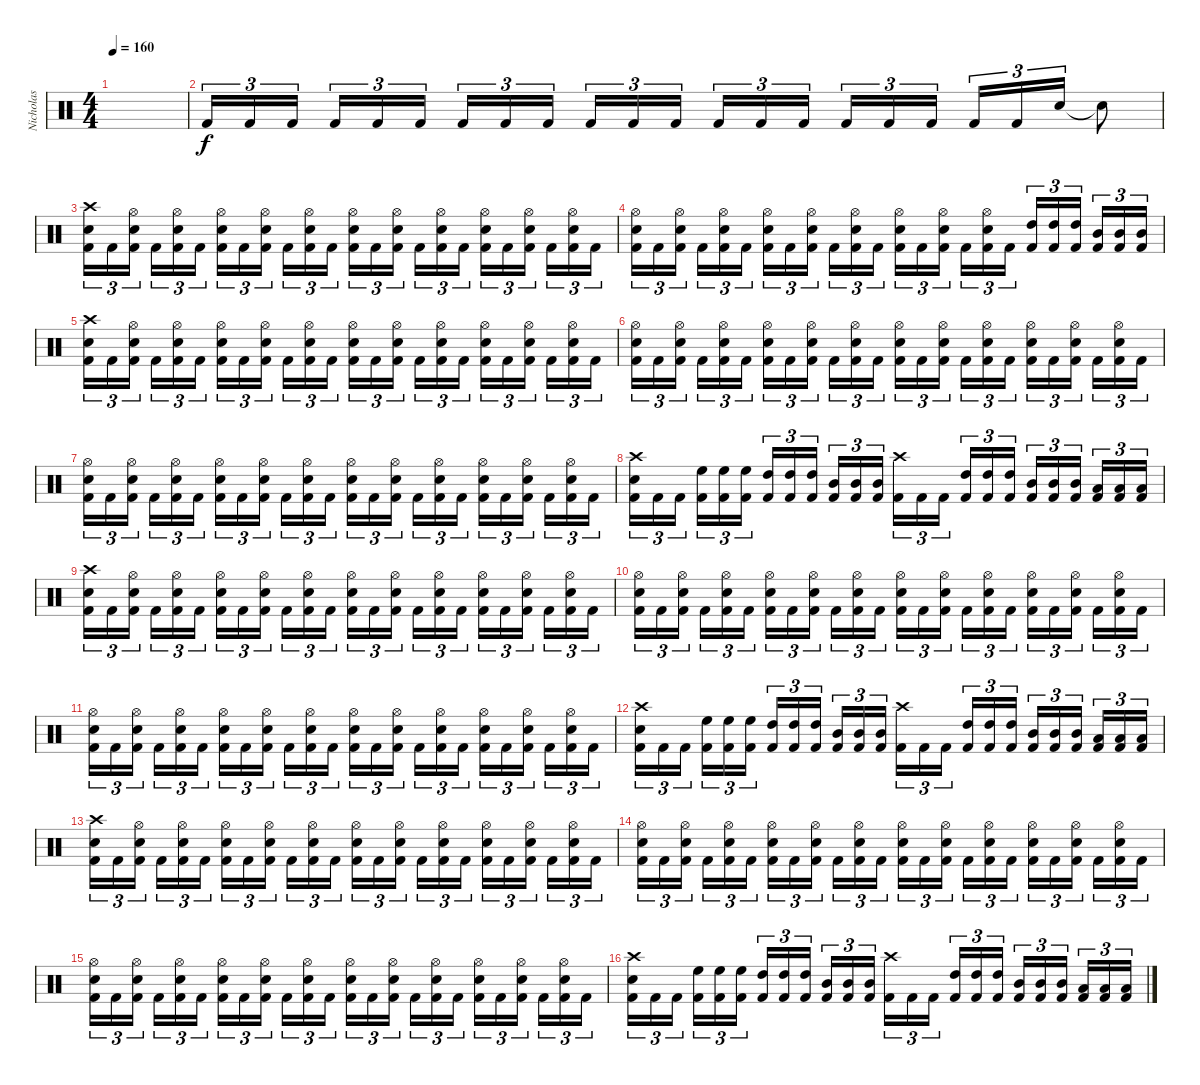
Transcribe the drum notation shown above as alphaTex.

\track ("Nicholas" "Nicholas") {instrument percussion}
\staff {score}
\articulation defaults
\ts (4 4)
\tempo 160
\clef neutral
\ks c
|
"Kick (hit) 2".16{tu (3 2)} "Kick (hit) 2".16{tu (3 2)} "Kick (hit) 2".16{tu (3 2)} "Kick (hit) 2".16{tu (3 2)} "Kick (hit) 2".16{tu (3 2)} "Kick (hit) 2".16{tu (3 2)} "Kick (hit) 2".16{tu (3 2)} "Kick (hit) 2".16{tu (3 2)} "Kick (hit) 2".16{tu (3 2)} "Kick (hit) 2".16{tu (3 2)} "Kick (hit) 2".16{tu (3 2)} "Kick (hit) 2".16{tu (3 2)} "Kick (hit) 2".16{tu (3 2)} "Kick (hit) 2".16{tu (3 2)} "Kick (hit) 2".16{tu (3 2)} "Kick (hit) 2".16{tu (3 2)} "Kick (hit) 2".16{tu (3 2)} "Kick (hit) 2".16{tu (3 2)} "Kick (hit) 2".16{tu (3 2)} "Kick (hit) 2".16{tu (3 2)} "Snare (hit) 2".16{tu (3 2)} "Snare (hit) 2"{t}.8 |
("Kick (hit) 2" "Snare (hit) 2" "Crash high (hit)").16{tu (3 2)} "Kick (hit) 2".16{tu (3 2)} ("Kick (hit) 2" "Snare (hit) 2" "Hi-Hat (open)").16{tu (3 2)} "Kick (hit) 2".16{tu (3 2)} ("Kick (hit) 2" "Snare (hit) 2" "Hi-Hat (open)").16{tu (3 2)} "Kick (hit) 2".16{tu (3 2)} ("Kick (hit) 2" "Snare (hit) 2" "Hi-Hat (open)").16{tu (3 2)} "Kick (hit) 2".16{tu (3 2)} ("Kick (hit) 2" "Snare (hit) 2" "Hi-Hat (open)").16{tu (3 2)} "Kick (hit) 2".16{tu (3 2)} ("Kick (hit) 2" "Snare (hit) 2" "Hi-Hat (open)").16{tu (3 2)} "Kick (hit) 2".16{tu (3 2)} ("Kick (hit) 2" "Snare (hit) 2" "Hi-Hat (open)").16{tu (3 2)} "Kick (hit) 2".16{tu (3 2)} ("Kick (hit) 2" "Snare (hit) 2" "Hi-Hat (open)").16{tu (3 2)} "Kick (hit) 2".16{tu (3 2)} ("Kick (hit) 2" "Snare (hit) 2" "Hi-Hat (open)").16{tu (3 2)} "Kick (hit) 2".16{tu (3 2)} ("Kick (hit) 2" "Snare (hit) 2" "Hi-Hat (open)").16{tu (3 2)} "Kick (hit) 2".16{tu (3 2)} ("Kick (hit) 2" "Snare (hit) 2" "Hi-Hat (open)").16{tu (3 2)} "Kick (hit) 2".16{tu (3 2)} ("Kick (hit) 2" "Snare (hit) 2" "Hi-Hat (open)").16{tu (3 2)} "Kick (hit) 2".16{tu (3 2)} |
("Kick (hit) 2" "Snare (hit) 2" "Hi-Hat (open)").16{tu (3 2)} "Kick (hit) 2".16{tu (3 2)} ("Kick (hit) 2" "Snare (hit) 2" "Hi-Hat (open)").16{tu (3 2)} "Kick (hit) 2".16{tu (3 2)} ("Kick (hit) 2" "Snare (hit) 2" "Hi-Hat (open)").16{tu (3 2)} "Kick (hit) 2".16{tu (3 2)} ("Kick (hit) 2" "Snare (hit) 2" "Hi-Hat (open)").16{tu (3 2)} "Kick (hit) 2".16{tu (3 2)} ("Kick (hit) 2" "Snare (hit) 2" "Hi-Hat (open)").16{tu (3 2)} "Kick (hit) 2".16{tu (3 2)} ("Kick (hit) 2" "Snare (hit) 2" "Hi-Hat (open)").16{tu (3 2)} "Kick (hit) 2".16{tu (3 2)} ("Kick (hit) 2" "Snare (hit) 2" "Hi-Hat (open)").16{tu (3 2)} "Kick (hit) 2".16{tu (3 2)} ("Kick (hit) 2" "Snare (hit) 2" "Hi-Hat (open)").16{tu (3 2)} "Kick (hit) 2".16{tu (3 2)} ("Kick (hit) 2" "Snare (hit) 2" "Hi-Hat (open)").16{tu (3 2)} "Kick (hit) 2".16{tu (3 2)} ("Kick (hit) 2" "High Tom (hit)").16{tu (3 2)} ("Kick (hit) 2" "High Tom (hit)").16{tu (3 2)} ("Kick (hit) 2" "High Tom (hit)").16{tu (3 2)} ("Kick (hit) 2" "Mid Tom (hit)").16{tu (3 2)} ("Kick (hit) 2" "Mid Tom (hit)").16{tu (3 2)} ("Kick (hit) 2" "Mid Tom (hit)").16{tu (3 2)} |
("Kick (hit) 2" "Snare (hit) 2" "Crash high (hit)").16{tu (3 2)} "Kick (hit) 2".16{tu (3 2)} ("Kick (hit) 2" "Snare (hit) 2" "Hi-Hat (open)").16{tu (3 2)} "Kick (hit) 2".16{tu (3 2)} ("Kick (hit) 2" "Snare (hit) 2" "Hi-Hat (open)").16{tu (3 2)} "Kick (hit) 2".16{tu (3 2)} ("Kick (hit) 2" "Snare (hit) 2" "Hi-Hat (open)").16{tu (3 2)} "Kick (hit) 2".16{tu (3 2)} ("Kick (hit) 2" "Snare (hit) 2" "Hi-Hat (open)").16{tu (3 2)} "Kick (hit) 2".16{tu (3 2)} ("Kick (hit) 2" "Snare (hit) 2" "Hi-Hat (open)").16{tu (3 2)} "Kick (hit) 2".16{tu (3 2)} ("Kick (hit) 2" "Snare (hit) 2" "Hi-Hat (open)").16{tu (3 2)} "Kick (hit) 2".16{tu (3 2)} ("Kick (hit) 2" "Snare (hit) 2" "Hi-Hat (open)").16{tu (3 2)} "Kick (hit) 2".16{tu (3 2)} ("Kick (hit) 2" "Snare (hit) 2" "Hi-Hat (open)").16{tu (3 2)} "Kick (hit) 2".16{tu (3 2)} ("Kick (hit) 2" "Snare (hit) 2" "Hi-Hat (open)").16{tu (3 2)} "Kick (hit) 2".16{tu (3 2)} ("Kick (hit) 2" "Snare (hit) 2" "Hi-Hat (open)").16{tu (3 2)} "Kick (hit) 2".16{tu (3 2)} ("Kick (hit) 2" "Snare (hit) 2" "Hi-Hat (open)").16{tu (3 2)} "Kick (hit) 2".16{tu (3 2)} |
("Kick (hit) 2" "Snare (hit) 2" "Hi-Hat (open)").16{tu (3 2)} "Kick (hit) 2".16{tu (3 2)} ("Kick (hit) 2" "Snare (hit) 2" "Hi-Hat (open)").16{tu (3 2)} "Kick (hit) 2".16{tu (3 2)} ("Kick (hit) 2" "Snare (hit) 2" "Hi-Hat (open)").16{tu (3 2)} "Kick (hit) 2".16{tu (3 2)} ("Kick (hit) 2" "Snare (hit) 2" "Hi-Hat (open)").16{tu (3 2)} "Kick (hit) 2".16{tu (3 2)} ("Kick (hit) 2" "Snare (hit) 2" "Hi-Hat (open)").16{tu (3 2)} "Kick (hit) 2".16{tu (3 2)} ("Kick (hit) 2" "Snare (hit) 2" "Hi-Hat (open)").16{tu (3 2)} "Kick (hit) 2".16{tu (3 2)} ("Kick (hit) 2" "Snare (hit) 2" "Hi-Hat (open)").16{tu (3 2)} "Kick (hit) 2".16{tu (3 2)} ("Kick (hit) 2" "Snare (hit) 2" "Hi-Hat (open)").16{tu (3 2)} "Kick (hit) 2".16{tu (3 2)} ("Kick (hit) 2" "Snare (hit) 2" "Hi-Hat (open)").16{tu (3 2)} "Kick (hit) 2".16{tu (3 2)} ("Kick (hit) 2" "Snare (hit) 2" "Hi-Hat (open)").16{tu (3 2)} "Kick (hit) 2".16{tu (3 2)} ("Kick (hit) 2" "Snare (hit) 2" "Hi-Hat (open)").16{tu (3 2)} "Kick (hit) 2".16{tu (3 2)} ("Kick (hit) 2" "Snare (hit) 2" "Hi-Hat (open)").16{tu (3 2)} "Kick (hit) 2".16{tu (3 2)} |
("Kick (hit) 2" "Snare (hit) 2" "Hi-Hat (open)").16{tu (3 2)} "Kick (hit) 2".16{tu (3 2)} ("Kick (hit) 2" "Snare (hit) 2" "Hi-Hat (open)").16{tu (3 2)} "Kick (hit) 2".16{tu (3 2)} ("Kick (hit) 2" "Snare (hit) 2" "Hi-Hat (open)").16{tu (3 2)} "Kick (hit) 2".16{tu (3 2)} ("Kick (hit) 2" "Snare (hit) 2" "Hi-Hat (open)").16{tu (3 2)} "Kick (hit) 2".16{tu (3 2)} ("Kick (hit) 2" "Snare (hit) 2" "Hi-Hat (open)").16{tu (3 2)} "Kick (hit) 2".16{tu (3 2)} ("Kick (hit) 2" "Snare (hit) 2" "Hi-Hat (open)").16{tu (3 2)} "Kick (hit) 2".16{tu (3 2)} ("Kick (hit) 2" "Snare (hit) 2" "Hi-Hat (open)").16{tu (3 2)} "Kick (hit) 2".16{tu (3 2)} ("Kick (hit) 2" "Snare (hit) 2" "Hi-Hat (open)").16{tu (3 2)} "Kick (hit) 2".16{tu (3 2)} ("Kick (hit) 2" "Snare (hit) 2" "Hi-Hat (open)").16{tu (3 2)} "Kick (hit) 2".16{tu (3 2)} ("Kick (hit) 2" "Snare (hit) 2" "Hi-Hat (open)").16{tu (3 2)} "Kick (hit) 2".16{tu (3 2)} ("Kick (hit) 2" "Snare (hit) 2" "Hi-Hat (open)").16{tu (3 2)} "Kick (hit) 2".16{tu (3 2)} ("Kick (hit) 2" "Snare (hit) 2" "Hi-Hat (open)").16{tu (3 2)} "Kick (hit) 2".16{tu (3 2)} |
("Kick (hit) 2" "Snare (hit) 2" "Crash high (hit)").16{tu (3 2)} "Kick (hit) 2".16{tu (3 2)} "Kick (hit) 2".16{tu (3 2)} ("Kick (hit) 2" "High Floor Tom (hit)").16{tu (3 2)} ("Kick (hit) 2" "High Floor Tom (hit)").16{tu (3 2)} ("Kick (hit) 2" "High Floor Tom (hit)").16{tu (3 2)} ("Kick (hit) 2" "High Tom (hit)").16{tu (3 2)} ("Kick (hit) 2" "High Tom (hit)").16{tu (3 2)} ("Kick (hit) 2" "High Tom (hit)").16{tu (3 2)} ("Kick (hit) 2" "Mid Tom (hit)").16{tu (3 2)} ("Kick (hit) 2" "Mid Tom (hit)").16{tu (3 2)} ("Kick (hit) 2" "Mid Tom (hit)").16{tu (3 2)} ("Kick (hit) 2" "Crash high (hit)").16{tu (3 2)} "Kick (hit) 2".16{tu (3 2)} "Kick (hit) 2".16{tu (3 2)} ("Kick (hit) 2" "High Tom (hit)").16{tu (3 2)} ("Kick (hit) 2" "High Tom (hit)").16{tu (3 2)} ("Kick (hit) 2" "High Tom (hit)").16{tu (3 2)} ("Kick (hit) 2" "Mid Tom (hit)").16{tu (3 2)} ("Kick (hit) 2" "Mid Tom (hit)").16{tu (3 2)} ("Kick (hit) 2" "Mid Tom (hit)").16{tu (3 2)} ("Kick (hit) 2" "Low Tom (hit)").16{tu (3 2)} ("Kick (hit) 2" "Low Tom (hit)").16{tu (3 2)} ("Kick (hit) 2" "Low Tom (hit)").16{tu (3 2)} |
("Kick (hit) 2" "Snare (hit) 2" "Crash high (hit)").16{tu (3 2)} "Kick (hit) 2".16{tu (3 2)} ("Kick (hit) 2" "Snare (hit) 2" "Hi-Hat (open)").16{tu (3 2)} "Kick (hit) 2".16{tu (3 2)} ("Kick (hit) 2" "Snare (hit) 2" "Hi-Hat (open)").16{tu (3 2)} "Kick (hit) 2".16{tu (3 2)} ("Kick (hit) 2" "Snare (hit) 2" "Hi-Hat (open)").16{tu (3 2)} "Kick (hit) 2".16{tu (3 2)} ("Kick (hit) 2" "Snare (hit) 2" "Hi-Hat (open)").16{tu (3 2)} "Kick (hit) 2".16{tu (3 2)} ("Kick (hit) 2" "Snare (hit) 2" "Hi-Hat (open)").16{tu (3 2)} "Kick (hit) 2".16{tu (3 2)} ("Kick (hit) 2" "Snare (hit) 2" "Hi-Hat (open)").16{tu (3 2)} "Kick (hit) 2".16{tu (3 2)} ("Kick (hit) 2" "Snare (hit) 2" "Hi-Hat (open)").16{tu (3 2)} "Kick (hit) 2".16{tu (3 2)} ("Kick (hit) 2" "Snare (hit) 2" "Hi-Hat (open)").16{tu (3 2)} "Kick (hit) 2".16{tu (3 2)} ("Kick (hit) 2" "Snare (hit) 2" "Hi-Hat (open)").16{tu (3 2)} "Kick (hit) 2".16{tu (3 2)} ("Kick (hit) 2" "Snare (hit) 2" "Hi-Hat (open)").16{tu (3 2)} "Kick (hit) 2".16{tu (3 2)} ("Kick (hit) 2" "Snare (hit) 2" "Hi-Hat (open)").16{tu (3 2)} "Kick (hit) 2".16{tu (3 2)} |
("Kick (hit) 2" "Snare (hit) 2" "Hi-Hat (open)").16{tu (3 2)} "Kick (hit) 2".16{tu (3 2)} ("Kick (hit) 2" "Snare (hit) 2" "Hi-Hat (open)").16{tu (3 2)} "Kick (hit) 2".16{tu (3 2)} ("Kick (hit) 2" "Snare (hit) 2" "Hi-Hat (open)").16{tu (3 2)} "Kick (hit) 2".16{tu (3 2)} ("Kick (hit) 2" "Snare (hit) 2" "Hi-Hat (open)").16{tu (3 2)} "Kick (hit) 2".16{tu (3 2)} ("Kick (hit) 2" "Snare (hit) 2" "Hi-Hat (open)").16{tu (3 2)} "Kick (hit) 2".16{tu (3 2)} ("Kick (hit) 2" "Snare (hit) 2" "Hi-Hat (open)").16{tu (3 2)} "Kick (hit) 2".16{tu (3 2)} ("Kick (hit) 2" "Snare (hit) 2" "Hi-Hat (open)").16{tu (3 2)} "Kick (hit) 2".16{tu (3 2)} ("Kick (hit) 2" "Snare (hit) 2" "Hi-Hat (open)").16{tu (3 2)} "Kick (hit) 2".16{tu (3 2)} ("Kick (hit) 2" "Snare (hit) 2" "Hi-Hat (open)").16{tu (3 2)} "Kick (hit) 2".16{tu (3 2)} ("Kick (hit) 2" "Snare (hit) 2" "Hi-Hat (open)").16{tu (3 2)} "Kick (hit) 2".16{tu (3 2)} ("Kick (hit) 2" "Snare (hit) 2" "Hi-Hat (open)").16{tu (3 2)} "Kick (hit) 2".16{tu (3 2)} ("Kick (hit) 2" "Snare (hit) 2" "Hi-Hat (open)").16{tu (3 2)} "Kick (hit) 2".16{tu (3 2)} |
("Kick (hit) 2" "Snare (hit) 2" "Hi-Hat (open)").16{tu (3 2)} "Kick (hit) 2".16{tu (3 2)} ("Kick (hit) 2" "Snare (hit) 2" "Hi-Hat (open)").16{tu (3 2)} "Kick (hit) 2".16{tu (3 2)} ("Kick (hit) 2" "Snare (hit) 2" "Hi-Hat (open)").16{tu (3 2)} "Kick (hit) 2".16{tu (3 2)} ("Kick (hit) 2" "Snare (hit) 2" "Hi-Hat (open)").16{tu (3 2)} "Kick (hit) 2".16{tu (3 2)} ("Kick (hit) 2" "Snare (hit) 2" "Hi-Hat (open)").16{tu (3 2)} "Kick (hit) 2".16{tu (3 2)} ("Kick (hit) 2" "Snare (hit) 2" "Hi-Hat (open)").16{tu (3 2)} "Kick (hit) 2".16{tu (3 2)} ("Kick (hit) 2" "Snare (hit) 2" "Hi-Hat (open)").16{tu (3 2)} "Kick (hit) 2".16{tu (3 2)} ("Kick (hit) 2" "Snare (hit) 2" "Hi-Hat (open)").16{tu (3 2)} "Kick (hit) 2".16{tu (3 2)} ("Kick (hit) 2" "Snare (hit) 2" "Hi-Hat (open)").16{tu (3 2)} "Kick (hit) 2".16{tu (3 2)} ("Kick (hit) 2" "Snare (hit) 2" "Hi-Hat (open)").16{tu (3 2)} "Kick (hit) 2".16{tu (3 2)} ("Kick (hit) 2" "Snare (hit) 2" "Hi-Hat (open)").16{tu (3 2)} "Kick (hit) 2".16{tu (3 2)} ("Kick (hit) 2" "Snare (hit) 2" "Hi-Hat (open)").16{tu (3 2)} "Kick (hit) 2".16{tu (3 2)} |
("Kick (hit) 2" "Snare (hit) 2" "Crash high (hit)").16{tu (3 2)} "Kick (hit) 2".16{tu (3 2)} "Kick (hit) 2".16{tu (3 2)} ("Kick (hit) 2" "High Floor Tom (hit)").16{tu (3 2)} ("Kick (hit) 2" "High Floor Tom (hit)").16{tu (3 2)} ("Kick (hit) 2" "High Floor Tom (hit)").16{tu (3 2)} ("Kick (hit) 2" "High Tom (hit)").16{tu (3 2)} ("Kick (hit) 2" "High Tom (hit)").16{tu (3 2)} ("Kick (hit) 2" "High Tom (hit)").16{tu (3 2)} ("Kick (hit) 2" "Mid Tom (hit)").16{tu (3 2)} ("Kick (hit) 2" "Mid Tom (hit)").16{tu (3 2)} ("Kick (hit) 2" "Mid Tom (hit)").16{tu (3 2)} ("Kick (hit) 2" "Crash high (hit)").16{tu (3 2)} "Kick (hit) 2".16{tu (3 2)} "Kick (hit) 2".16{tu (3 2)} ("Kick (hit) 2" "High Tom (hit)").16{tu (3 2)} ("Kick (hit) 2" "High Tom (hit)").16{tu (3 2)} ("Kick (hit) 2" "High Tom (hit)").16{tu (3 2)} ("Kick (hit) 2" "Mid Tom (hit)").16{tu (3 2)} ("Kick (hit) 2" "Mid Tom (hit)").16{tu (3 2)} ("Kick (hit) 2" "Mid Tom (hit)").16{tu (3 2)} ("Kick (hit) 2" "Low Tom (hit)").16{tu (3 2)} ("Kick (hit) 2" "Low Tom (hit)").16{tu (3 2)} ("Kick (hit) 2" "Low Tom (hit)").16{tu (3 2)} |
("Kick (hit) 2" "Snare (hit) 2" "Crash high (hit)").16{tu (3 2)} "Kick (hit) 2".16{tu (3 2)} ("Kick (hit) 2" "Snare (hit) 2" "Hi-Hat (open)").16{tu (3 2)} "Kick (hit) 2".16{tu (3 2)} ("Kick (hit) 2" "Snare (hit) 2" "Hi-Hat (open)").16{tu (3 2)} "Kick (hit) 2".16{tu (3 2)} ("Kick (hit) 2" "Snare (hit) 2" "Hi-Hat (open)").16{tu (3 2)} "Kick (hit) 2".16{tu (3 2)} ("Kick (hit) 2" "Snare (hit) 2" "Hi-Hat (open)").16{tu (3 2)} "Kick (hit) 2".16{tu (3 2)} ("Kick (hit) 2" "Snare (hit) 2" "Hi-Hat (open)").16{tu (3 2)} "Kick (hit) 2".16{tu (3 2)} ("Kick (hit) 2" "Snare (hit) 2" "Hi-Hat (open)").16{tu (3 2)} "Kick (hit) 2".16{tu (3 2)} ("Kick (hit) 2" "Snare (hit) 2" "Hi-Hat (open)").16{tu (3 2)} "Kick (hit) 2".16{tu (3 2)} ("Kick (hit) 2" "Snare (hit) 2" "Hi-Hat (open)").16{tu (3 2)} "Kick (hit) 2".16{tu (3 2)} ("Kick (hit) 2" "Snare (hit) 2" "Hi-Hat (open)").16{tu (3 2)} "Kick (hit) 2".16{tu (3 2)} ("Kick (hit) 2" "Snare (hit) 2" "Hi-Hat (open)").16{tu (3 2)} "Kick (hit) 2".16{tu (3 2)} ("Kick (hit) 2" "Snare (hit) 2" "Hi-Hat (open)").16{tu (3 2)} "Kick (hit) 2".16{tu (3 2)} |
("Kick (hit) 2" "Snare (hit) 2" "Hi-Hat (open)").16{tu (3 2)} "Kick (hit) 2".16{tu (3 2)} ("Kick (hit) 2" "Snare (hit) 2" "Hi-Hat (open)").16{tu (3 2)} "Kick (hit) 2".16{tu (3 2)} ("Kick (hit) 2" "Snare (hit) 2" "Hi-Hat (open)").16{tu (3 2)} "Kick (hit) 2".16{tu (3 2)} ("Kick (hit) 2" "Snare (hit) 2" "Hi-Hat (open)").16{tu (3 2)} "Kick (hit) 2".16{tu (3 2)} ("Kick (hit) 2" "Snare (hit) 2" "Hi-Hat (open)").16{tu (3 2)} "Kick (hit) 2".16{tu (3 2)} ("Kick (hit) 2" "Snare (hit) 2" "Hi-Hat (open)").16{tu (3 2)} "Kick (hit) 2".16{tu (3 2)} ("Kick (hit) 2" "Snare (hit) 2" "Hi-Hat (open)").16{tu (3 2)} "Kick (hit) 2".16{tu (3 2)} ("Kick (hit) 2" "Snare (hit) 2" "Hi-Hat (open)").16{tu (3 2)} "Kick (hit) 2".16{tu (3 2)} ("Kick (hit) 2" "Snare (hit) 2" "Hi-Hat (open)").16{tu (3 2)} "Kick (hit) 2".16{tu (3 2)} ("Kick (hit) 2" "Snare (hit) 2" "Hi-Hat (open)").16{tu (3 2)} "Kick (hit) 2".16{tu (3 2)} ("Kick (hit) 2" "Snare (hit) 2" "Hi-Hat (open)").16{tu (3 2)} "Kick (hit) 2".16{tu (3 2)} ("Kick (hit) 2" "Snare (hit) 2" "Hi-Hat (open)").16{tu (3 2)} "Kick (hit) 2".16{tu (3 2)} |
("Kick (hit) 2" "Snare (hit) 2" "Hi-Hat (open)").16{tu (3 2)} "Kick (hit) 2".16{tu (3 2)} ("Kick (hit) 2" "Snare (hit) 2" "Hi-Hat (open)").16{tu (3 2)} "Kick (hit) 2".16{tu (3 2)} ("Kick (hit) 2" "Snare (hit) 2" "Hi-Hat (open)").16{tu (3 2)} "Kick (hit) 2".16{tu (3 2)} ("Kick (hit) 2" "Snare (hit) 2" "Hi-Hat (open)").16{tu (3 2)} "Kick (hit) 2".16{tu (3 2)} ("Kick (hit) 2" "Snare (hit) 2" "Hi-Hat (open)").16{tu (3 2)} "Kick (hit) 2".16{tu (3 2)} ("Kick (hit) 2" "Snare (hit) 2" "Hi-Hat (open)").16{tu (3 2)} "Kick (hit) 2".16{tu (3 2)} ("Kick (hit) 2" "Snare (hit) 2" "Hi-Hat (open)").16{tu (3 2)} "Kick (hit) 2".16{tu (3 2)} ("Kick (hit) 2" "Snare (hit) 2" "Hi-Hat (open)").16{tu (3 2)} "Kick (hit) 2".16{tu (3 2)} ("Kick (hit) 2" "Snare (hit) 2" "Hi-Hat (open)").16{tu (3 2)} "Kick (hit) 2".16{tu (3 2)} ("Kick (hit) 2" "Snare (hit) 2" "Hi-Hat (open)").16{tu (3 2)} "Kick (hit) 2".16{tu (3 2)} ("Kick (hit) 2" "Snare (hit) 2" "Hi-Hat (open)").16{tu (3 2)} "Kick (hit) 2".16{tu (3 2)} ("Kick (hit) 2" "Snare (hit) 2" "Hi-Hat (open)").16{tu (3 2)} "Kick (hit) 2".16{tu (3 2)} |
("Kick (hit) 2" "Snare (hit) 2" "Crash high (hit)").16{tu (3 2)} "Kick (hit) 2".16{tu (3 2)} "Kick (hit) 2".16{tu (3 2)} ("Kick (hit) 2" "High Floor Tom (hit)").16{tu (3 2)} ("Kick (hit) 2" "High Floor Tom (hit)").16{tu (3 2)} ("Kick (hit) 2" "High Floor Tom (hit)").16{tu (3 2)} ("Kick (hit) 2" "High Tom (hit)").16{tu (3 2)} ("Kick (hit) 2" "High Tom (hit)").16{tu (3 2)} ("Kick (hit) 2" "High Tom (hit)").16{tu (3 2)} ("Kick (hit) 2" "Mid Tom (hit)").16{tu (3 2)} ("Kick (hit) 2" "Mid Tom (hit)").16{tu (3 2)} ("Kick (hit) 2" "Mid Tom (hit)").16{tu (3 2)} ("Kick (hit) 2" "Crash high (hit)").16{tu (3 2)} "Kick (hit) 2".16{tu (3 2)} "Kick (hit) 2".16{tu (3 2)} ("Kick (hit) 2" "High Tom (hit)").16{tu (3 2)} ("Kick (hit) 2" "High Tom (hit)").16{tu (3 2)} ("Kick (hit) 2" "High Tom (hit)").16{tu (3 2)} ("Kick (hit) 2" "Mid Tom (hit)").16{tu (3 2)} ("Kick (hit) 2" "Mid Tom (hit)").16{tu (3 2)} ("Kick (hit) 2" "Mid Tom (hit)").16{tu (3 2)} ("Kick (hit) 2" "Low Tom (hit)").16{tu (3 2)} ("Kick (hit) 2" "Low Tom (hit)").16{tu (3 2)} ("Kick (hit) 2" "Low Tom (hit)").16{tu (3 2)}
